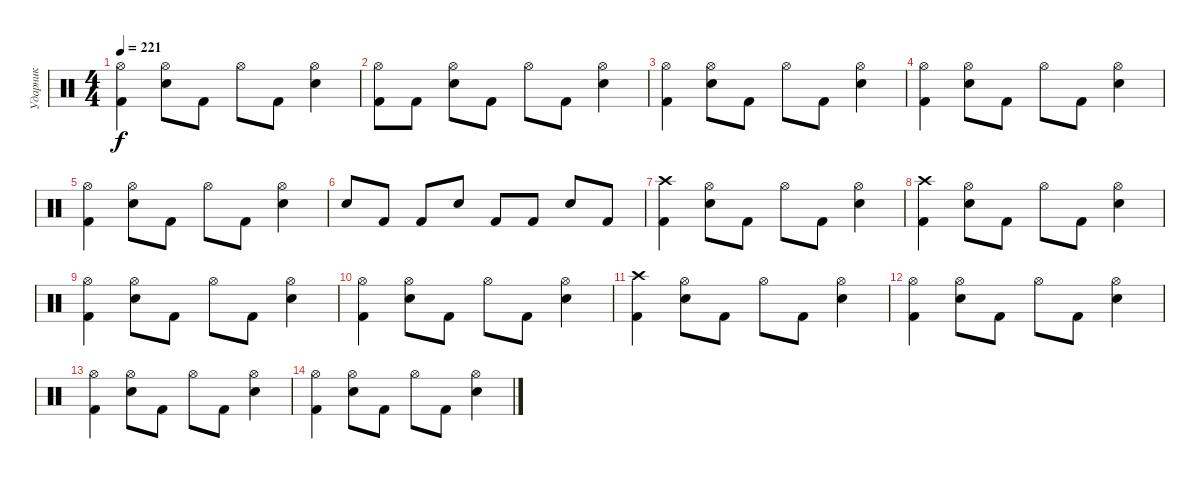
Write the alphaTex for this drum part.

\track ("Ударник" "Ударник") {instrument percussion}
\staff {score}
\articulation defaults
\ts (4 4)
\tempo 221
\clef neutral
\ks c
("Kick (hit) 2" "Hi-Hat (open)").4{dy f} ("Snare (hit) 2" "Hi-Hat (open)").8 "Kick (hit) 2".8 "Hi-Hat (open)".8 "Kick (hit) 2".8 ("Snare (hit) 2" "Hi-Hat (open)").4 |
("Kick (hit) 2" "Hi-Hat (open)").8 "Kick (hit) 2".8 ("Snare (hit) 2" "Hi-Hat (open)").8 "Kick (hit) 2".8 "Hi-Hat (open)".8 "Kick (hit) 2".8 ("Snare (hit) 2" "Hi-Hat (open)").4 |
("Kick (hit) 2" "Hi-Hat (open)").4 ("Snare (hit) 2" "Hi-Hat (open)").8 "Kick (hit) 2".8 "Hi-Hat (open)".8 "Kick (hit) 2".8 ("Snare (hit) 2" "Hi-Hat (open)").4 |
("Kick (hit) 2" "Hi-Hat (open)").4 ("Snare (hit) 2" "Hi-Hat (open)").8 "Kick (hit) 2".8 "Hi-Hat (open)".8 "Kick (hit) 2".8 ("Snare (hit) 2" "Hi-Hat (open)").4 |
("Kick (hit) 2" "Hi-Hat (open)").4 ("Snare (hit) 2" "Hi-Hat (open)").8 "Kick (hit) 2".8 "Hi-Hat (open)".8 "Kick (hit) 2".8 ("Snare (hit) 2" "Hi-Hat (open)").4 |
"Snare (hit) 2".8 "Kick (hit) 2".8 "Kick (hit) 2".8 "Snare (hit) 2".8 "Kick (hit) 2".8 "Kick (hit) 2".8 "Snare (hit) 2".8 "Kick (hit) 2".8 |
("Kick (hit) 2" "Crash high (hit)").4 ("Snare (hit) 2" "Hi-Hat (open)").8 "Kick (hit) 2".8 "Hi-Hat (open)".8 "Kick (hit) 2".8 ("Snare (hit) 2" "Hi-Hat (open)").4 |
("Kick (hit) 2" "Crash high (hit)").4 ("Snare (hit) 2" "Hi-Hat (open)").8 "Kick (hit) 2".8 "Hi-Hat (open)".8 "Kick (hit) 2".8 ("Snare (hit) 2" "Hi-Hat (open)").4 |
("Kick (hit) 2" "Hi-Hat (open)").4 ("Snare (hit) 2" "Hi-Hat (open)").8 "Kick (hit) 2".8 "Hi-Hat (open)".8 "Kick (hit) 2".8 ("Snare (hit) 2" "Hi-Hat (open)").4 |
("Kick (hit) 2" "Hi-Hat (open)").4 ("Snare (hit) 2" "Hi-Hat (open)").8 "Kick (hit) 2".8 "Hi-Hat (open)".8 "Kick (hit) 2".8 ("Snare (hit) 2" "Hi-Hat (open)").4 |
("Kick (hit) 2" "Crash high (hit)").4 ("Snare (hit) 2" "Hi-Hat (open)").8 "Kick (hit) 2".8 "Hi-Hat (open)".8 "Kick (hit) 2".8 ("Snare (hit) 2" "Hi-Hat (open)").4 |
("Kick (hit) 2" "Hi-Hat (open)").4 ("Snare (hit) 2" "Hi-Hat (open)").8 "Kick (hit) 2".8 "Hi-Hat (open)".8 "Kick (hit) 2".8 ("Snare (hit) 2" "Hi-Hat (open)").4 |
("Kick (hit) 2" "Hi-Hat (open)").4 ("Snare (hit) 2" "Hi-Hat (open)").8 "Kick (hit) 2".8 "Hi-Hat (open)".8 "Kick (hit) 2".8 ("Snare (hit) 2" "Hi-Hat (open)").4 |
("Kick (hit) 2" "Hi-Hat (open)").4 ("Snare (hit) 2" "Hi-Hat (open)").8 "Kick (hit) 2".8 "Hi-Hat (open)".8 "Kick (hit) 2".8 ("Snare (hit) 2" "Hi-Hat (open)").4
